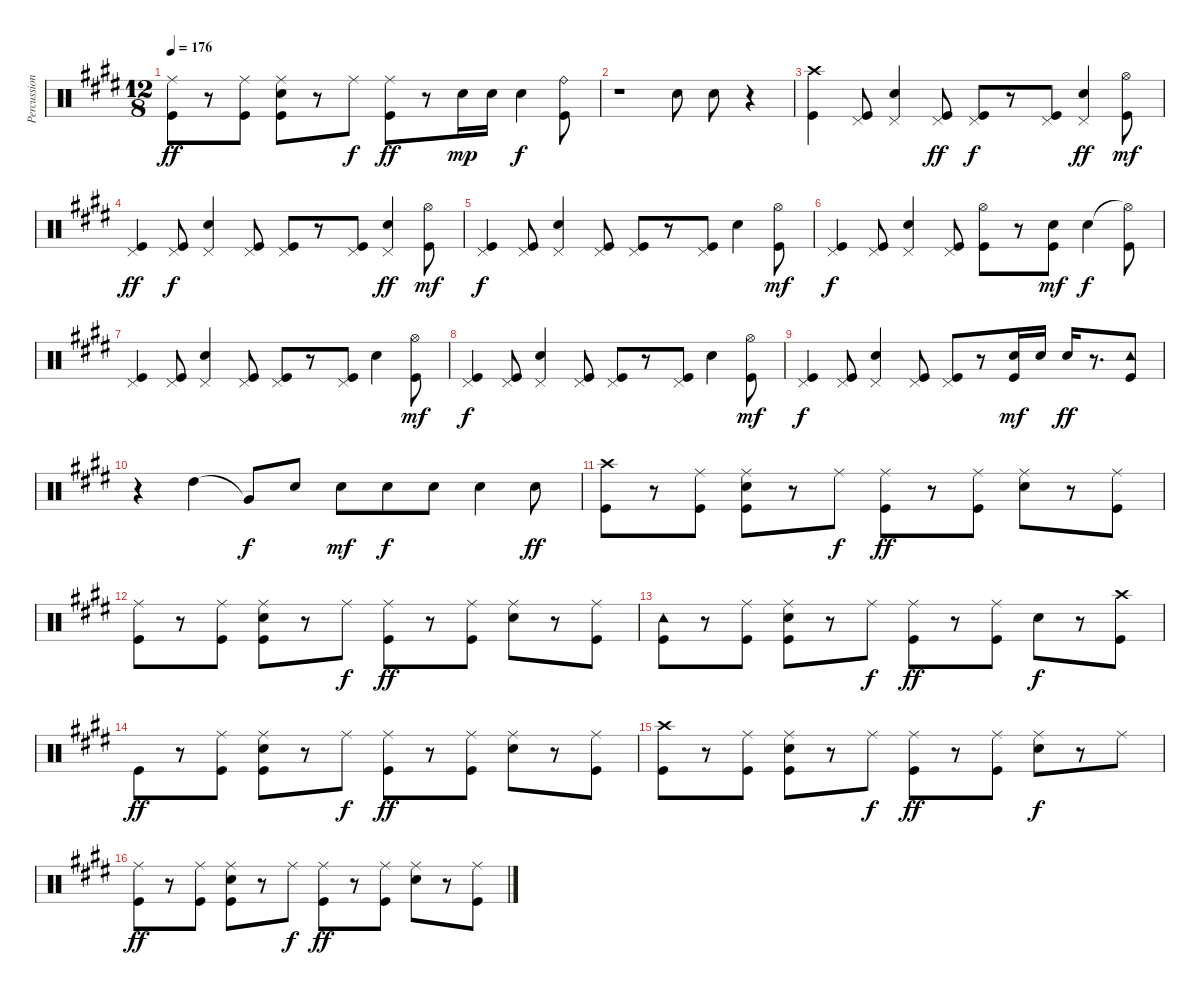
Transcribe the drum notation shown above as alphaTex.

\track ("Percussion" "Percussion") {instrument percussion}
\staff {score}
\articulation defaults
\ts (12 8)
\tempo 176
\clef neutral
\ks e
("Ride (middle)" "Kick (hit)").8{dy ff} r.8 ("Ride (middle)" "Kick (hit)").8 ("Ride (middle)" "Electric Snare (hit)" "Kick (hit)").8 r.8 "Ride (middle)".8{dy f} ("Ride (middle)" "Kick (hit)").8{dy ff} r.8 "Snare (hit) 2".16{dy mp} "Snare (hit) 2".16 "Snare (hit) 2".4{dy f} ("Ride (bell)" "Kick (hit)").8 |
r.1 "Snare (hit) 2".8 "Snare (hit) 2".8 r.4 |
("Crash high (hit)" "Kick (hit)").4 ("Pedal Hi-Hat (hit)" "Kick (hit)").8 ("Electric Snare (hit)" "Pedal Hi-Hat (hit)").4 ("Pedal Hi-Hat (hit)" "Kick (hit)").8{dy ff} ("Pedal Hi-Hat (hit)" "Kick (hit)").8{dy f} r.8 ("Pedal Hi-Hat (hit)" "Kick (hit)").8 ("Electric Snare (hit)" "Pedal Hi-Hat (hit)").4{dy ff} ("Hi-Hat (open)" "Kick (hit)").8{dy mf} |
("Pedal Hi-Hat (hit)" "Kick (hit)").4{dy ff} ("Pedal Hi-Hat (hit)" "Kick (hit)").8{dy f} ("Electric Snare (hit)" "Pedal Hi-Hat (hit)").4 ("Pedal Hi-Hat (hit)" "Kick (hit)").8 ("Pedal Hi-Hat (hit)" "Kick (hit)").8 r.8 ("Pedal Hi-Hat (hit)" "Kick (hit)").8 ("Electric Snare (hit)" "Pedal Hi-Hat (hit)").4{dy ff} ("Hi-Hat (open)" "Kick (hit)").8{dy mf} |
("Pedal Hi-Hat (hit)" "Kick (hit)").4{dy f} ("Pedal Hi-Hat (hit)" "Kick (hit)").8 ("Electric Snare (hit)" "Pedal Hi-Hat (hit)").4 ("Pedal Hi-Hat (hit)" "Kick (hit)").8 ("Pedal Hi-Hat (hit)" "Kick (hit)").8 r.8 ("Pedal Hi-Hat (hit)" "Kick (hit)").8 "Electric Snare (hit)".4 ("Hi-Hat (open)" "Kick (hit)").8{dy mf} |
("Pedal Hi-Hat (hit)" "Kick (hit)").4{dy f} ("Pedal Hi-Hat (hit)" "Kick (hit)").8 ("Electric Snare (hit)" "Pedal Hi-Hat (hit)").4 ("Pedal Hi-Hat (hit)" "Kick (hit)").8 ("Hi-Hat (open)" "Kick (hit)").8 r.8 ("Electric Snare (hit)" "Kick (hit)").8{dy mf} "Electric Snare (hit)".4{dy f} ("Hi-Hat (open)"{t} "Kick (hit)").8 |
("Pedal Hi-Hat (hit)" "Kick (hit)").4 ("Pedal Hi-Hat (hit)" "Kick (hit)").8 ("Electric Snare (hit)" "Pedal Hi-Hat (hit)").4 ("Pedal Hi-Hat (hit)" "Kick (hit)").8 ("Pedal Hi-Hat (hit)" "Kick (hit)").8 r.8 ("Pedal Hi-Hat (hit)" "Kick (hit)").8 "Electric Snare (hit)".4 ("Hi-Hat (open)" "Kick (hit)").8{dy mf} |
("Pedal Hi-Hat (hit)" "Kick (hit)").4{dy f} ("Pedal Hi-Hat (hit)" "Kick (hit)").8 ("Electric Snare (hit)" "Pedal Hi-Hat (hit)").4 ("Pedal Hi-Hat (hit)" "Kick (hit)").8 ("Pedal Hi-Hat (hit)" "Kick (hit)").8 r.8 ("Pedal Hi-Hat (hit)" "Kick (hit)").8 "Electric Snare (hit)".4 ("Hi-Hat (open)" "Kick (hit)").8{dy mf} |
("Pedal Hi-Hat (hit)" "Kick (hit)").4{dy f} ("Pedal Hi-Hat (hit)" "Kick (hit)").8 ("Electric Snare (hit)" "Pedal Hi-Hat (hit)").4 ("Pedal Hi-Hat (hit)" "Kick (hit)").8 ("Pedal Hi-Hat (hit)" "Kick (hit)").8 r.8 ("Snare (hit) 2" "Kick (hit)").16{dy mf} "Snare (hit) 2".16 "Snare (hit) 2".16{dy ff} r.8{d} ("Tambourine (hit)" "Kick (hit)").8 |
r.4 "High Tom (hit)".4 "Very Low Tom (hit)"{t}.8{dy f} "Hand Clap (hit)".8 "Snare (hit) 2".8{dy mf} "Snare (hit) 2".8{dy f} "Snare (hit) 2".8 "Snare (hit) 2".4 "Electric Snare (hit)".8{dy ff} |
("Crash high (hit)" "Kick (hit)").8 r.8 ("Ride (middle)" "Kick (hit)").8 ("Ride (middle)" "Electric Snare (hit)" "Kick (hit)").8 r.8 "Ride (middle)".8{dy f} ("Ride (middle)" "Kick (hit)").8{dy ff} r.8 ("Ride (middle)" "Kick (hit)").8 ("Ride (middle)" "Electric Snare (hit)").8 r.8 ("Ride (middle)" "Kick (hit)").8 |
("Ride (middle)" "Kick (hit)").8 r.8 ("Ride (middle)" "Kick (hit)").8 ("Ride (middle)" "Electric Snare (hit)" "Kick (hit)").8 r.8 "Ride (middle)".8{dy f} ("Ride (middle)" "Kick (hit)").8{dy ff} r.8 ("Ride (middle)" "Kick (hit)").8 ("Ride (middle)" "Electric Snare (hit)").8 r.8 ("Ride (middle)" "Kick (hit)").8 |
("Tambourine (hit)" "Kick (hit)").8 r.8 ("Ride (middle)" "Kick (hit)").8 ("Ride (middle)" "Electric Snare (hit)" "Kick (hit)").8 r.8 "Ride (middle)".8{dy f} ("Ride (middle)" "Kick (hit)").8{dy ff} r.8 ("Ride (middle)" "Kick (hit)").8 "Electric Snare (hit)".8{dy f} r.8 ("Crash high (hit)" "Kick (hit)").8 |
"Kick (hit)".8{dy ff} r.8 ("Ride (middle)" "Kick (hit)").8 ("Ride (middle)" "Electric Snare (hit)" "Kick (hit)").8 r.8 "Ride (middle)".8{dy f} ("Ride (middle)" "Kick (hit)").8{dy ff} r.8 ("Ride (middle)" "Kick (hit)").8 ("Ride (middle)" "Electric Snare (hit)").8 r.8 ("Ride (middle)" "Kick (hit)").8 |
("Crash high (hit)" "Kick (hit)").8 r.8 ("Ride (middle)" "Kick (hit)").8 ("Ride (middle)" "Electric Snare (hit)" "Kick (hit)").8 r.8 "Ride (middle)".8{dy f} ("Ride (middle)" "Kick (hit)").8{dy ff} r.8 ("Ride (middle)" "Kick (hit)").8 ("Ride (middle)" "Electric Snare (hit)").8{dy f} r.8 "Ride (middle)".8 |
("Ride (middle)" "Kick (hit)").8{dy ff} r.8 ("Ride (middle)" "Kick (hit)").8 ("Ride (middle)" "Electric Snare (hit)" "Kick (hit)").8 r.8 "Ride (middle)".8{dy f} ("Ride (middle)" "Kick (hit)").8{dy ff} r.8 ("Ride (middle)" "Kick (hit)").8 ("Ride (middle)" "Electric Snare (hit)").8 r.8 ("Ride (middle)" "Kick (hit)").8
